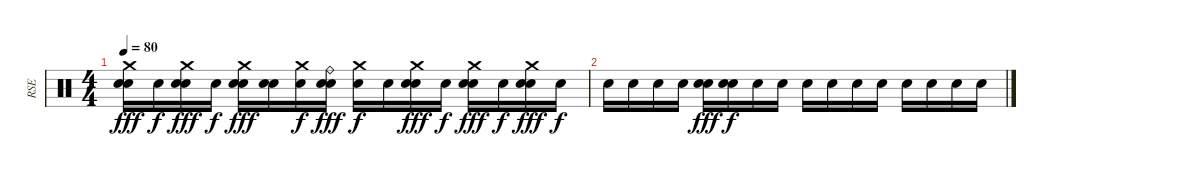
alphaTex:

\track ("RSE" "RSE") {instrument percussion}
\staff
\articulation defaults
\ts (4 4)
\tempo 80
\clef neutral
\ks c
("Crash medium (hit)" "Electric Snare (hit)" "Snare (hit)").16{dy fff} "Snare (hit)".16{dy f} ("Crash medium (hit)" "Electric Snare (hit)" "Snare (hit)").16{dy fff} "Snare (hit)".16{dy f} ("Crash medium (hit)" "Electric Snare (hit)" "Snare (hit)").16{dy fff} ("Electric Snare (hit)" "Snare (hit)").16 ("Crash medium (hit)" "Snare (hit)").16{dy f} ("Ride (bell)" "Snare (hit) 2" "Snare (hit)").16{dy fff} ("Crash medium (hit)" "Snare (hit)").16{dy f} "Snare (hit)".16 ("Crash medium (hit)" "Electric Snare (hit)" "Snare (hit)").16{dy fff} "Snare (hit)".16{dy f} ("Crash medium (hit)" "Electric Snare (hit)" "Snare (hit)").16{dy fff} "Snare (hit)".16{dy f} ("Crash medium (hit)" "Electric Snare (hit)" "Snare (hit)").16{dy fff} "Snare (hit)".16{dy f} |
"Snare (hit)".16 "Snare (hit)".16 "Snare (hit)".16 "Snare (hit)".16 ("Electric Snare (hit)" "Snare (hit)").16{dy fff} ("Electric Snare (hit)" "Snare (hit)").16{dy f} "Snare (hit)".16 "Snare (hit)".16 "Snare (hit)".16 "Snare (hit)".16 "Snare (hit)".16 "Snare (hit)".16 "Snare (hit)".16 "Snare (hit)".16 "Snare (hit)".16 "Snare (hit)".16
